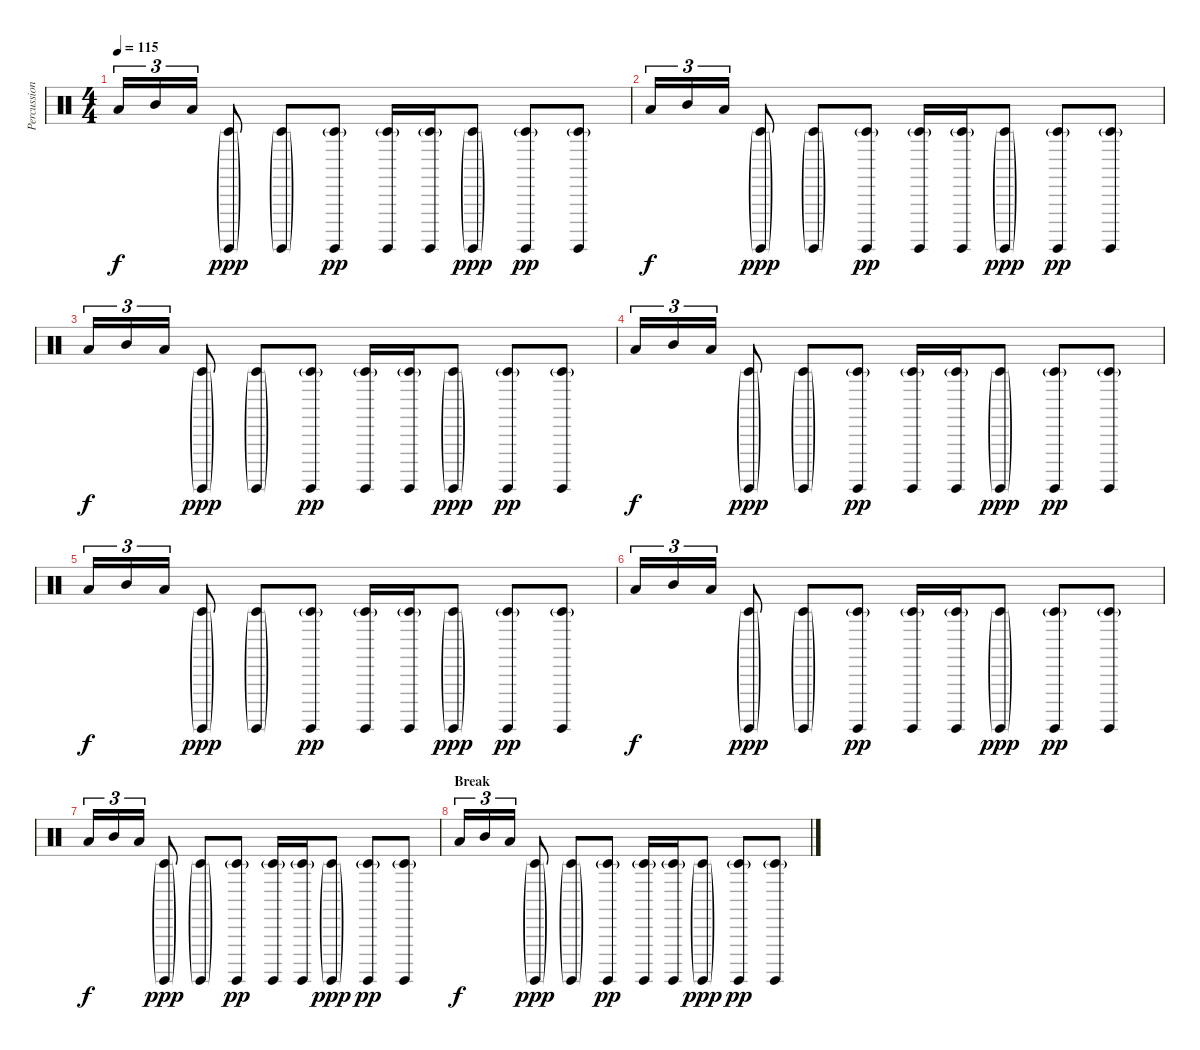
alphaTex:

\track ("Percussion - Low Tom" "Percussion") {instrument percussion}
\staff {score}
\articulation defaults
\ts (4 4)
\tempo 115
\clef neutral
\ks c "Low Tom (hit)".16{tu (3 2) dy f} "Mid Tom (hit)".16{tu (3 2)} "Low Tom (hit)".16{tu (3 2)}
("Timbale low (hit)"{g} "Surdo (hit)"{g}).8{dy ppp} ("Timbale low (hit)"{g} "Surdo (hit)"{g}).8 ("Timbale low (hit)"{g} "Surdo (hit)").8{dy pp} ("Timbale low (hit)"{g} "Surdo (hit)").16 ("Timbale low (hit)"{g} "Surdo (hit)").16 ("Timbale low (hit)"{g} "Surdo (hit)"{g}).8{dy ppp} ("Timbale low (hit)"{g} "Surdo (hit)").8{dy pp} ("Timbale low (hit)"{g} "Surdo (hit)").8 |
"Low Tom (hit)".16{tu (3 2) dy f} "Mid Tom (hit)".16{tu (3 2)} "Low Tom (hit)".16{tu (3 2)} ("Timbale low (hit)"{g} "Surdo (hit)"{g}).8{dy ppp} ("Timbale low (hit)"{g} "Surdo (hit)"{g}).8 ("Timbale low (hit)"{g} "Surdo (hit)").8{dy pp} ("Timbale low (hit)"{g} "Surdo (hit)").16 ("Timbale low (hit)"{g} "Surdo (hit)").16 ("Timbale low (hit)"{g} "Surdo (hit)"{g}).8{dy ppp} ("Timbale low (hit)"{g} "Surdo (hit)").8{dy pp} ("Timbale low (hit)"{g} "Surdo (hit)").8 |
"Low Tom (hit)".16{tu (3 2) dy f} "Mid Tom (hit)".16{tu (3 2)} "Low Tom (hit)".16{tu (3 2)} ("Timbale low (hit)"{g} "Surdo (hit)"{g}).8{dy ppp} ("Timbale low (hit)"{g} "Surdo (hit)"{g}).8 ("Timbale low (hit)"{g} "Surdo (hit)").8{dy pp} ("Timbale low (hit)"{g} "Surdo (hit)").16 ("Timbale low (hit)"{g} "Surdo (hit)").16 ("Timbale low (hit)"{g} "Surdo (hit)"{g}).8{dy ppp} ("Timbale low (hit)"{g} "Surdo (hit)").8{dy pp} ("Timbale low (hit)"{g} "Surdo (hit)").8 |
"Low Tom (hit)".16{tu (3 2) dy f} "Mid Tom (hit)".16{tu (3 2)} "Low Tom (hit)".16{tu (3 2)} ("Timbale low (hit)"{g} "Surdo (hit)"{g}).8{dy ppp} ("Timbale low (hit)"{g} "Surdo (hit)"{g}).8 ("Timbale low (hit)"{g} "Surdo (hit)").8{dy pp} ("Timbale low (hit)"{g} "Surdo (hit)").16 ("Timbale low (hit)"{g} "Surdo (hit)").16 ("Timbale low (hit)"{g} "Surdo (hit)"{g}).8{dy ppp} ("Timbale low (hit)"{g} "Surdo (hit)").8{dy pp} ("Timbale low (hit)"{g} "Surdo (hit)").8 |
"Low Tom (hit)".16{tu (3 2) dy f} "Mid Tom (hit)".16{tu (3 2)} "Low Tom (hit)".16{tu (3 2)} ("Timbale low (hit)"{g} "Surdo (hit)"{g}).8{dy ppp} ("Timbale low (hit)"{g} "Surdo (hit)"{g}).8 ("Timbale low (hit)"{g} "Surdo (hit)").8{dy pp} ("Timbale low (hit)"{g} "Surdo (hit)").16 ("Timbale low (hit)"{g} "Surdo (hit)").16 ("Timbale low (hit)"{g} "Surdo (hit)"{g}).8{dy ppp} ("Timbale low (hit)"{g} "Surdo (hit)").8{dy pp} ("Timbale low (hit)"{g} "Surdo (hit)").8 |
"Low Tom (hit)".16{tu (3 2) dy f} "Mid Tom (hit)".16{tu (3 2)} "Low Tom (hit)".16{tu (3 2)} ("Timbale low (hit)"{g} "Surdo (hit)"{g}).8{dy ppp} ("Timbale low (hit)"{g} "Surdo (hit)"{g}).8 ("Timbale low (hit)"{g} "Surdo (hit)").8{dy pp} ("Timbale low (hit)"{g} "Surdo (hit)").16 ("Timbale low (hit)"{g} "Surdo (hit)").16 ("Timbale low (hit)"{g} "Surdo (hit)"{g}).8{dy ppp} ("Timbale low (hit)"{g} "Surdo (hit)").8{dy pp} ("Timbale low (hit)"{g} "Surdo (hit)").8 |
"Low Tom (hit)".16{tu (3 2) dy f} "Mid Tom (hit)".16{tu (3 2)} "Low Tom (hit)".16{tu (3 2)} ("Timbale low (hit)"{g} "Surdo (hit)"{g}).8{dy ppp} ("Timbale low (hit)"{g} "Surdo (hit)"{g}).8 ("Timbale low (hit)"{g} "Surdo (hit)").8{dy pp} ("Timbale low (hit)"{g} "Surdo (hit)").16 ("Timbale low (hit)"{g} "Surdo (hit)").16 ("Timbale low (hit)"{g} "Surdo (hit)"{g}).8{dy ppp} ("Timbale low (hit)"{g} "Surdo (hit)").8{dy pp} ("Timbale low (hit)"{g} "Surdo (hit)").8 |
\section ("" "Break")
"Low Tom (hit)".16{tu (3 2) dy f} "Mid Tom (hit)".16{tu (3 2)} "Low Tom (hit)".16{tu (3 2)} ("Timbale low (hit)"{g} "Surdo (hit)"{g}).8{dy ppp} ("Timbale low (hit)"{g} "Surdo (hit)"{g}).8 ("Timbale low (hit)"{g} "Surdo (hit)").8{dy pp} ("Timbale low (hit)"{g} "Surdo (hit)").16 ("Timbale low (hit)"{g} "Surdo (hit)").16 ("Timbale low (hit)"{g} "Surdo (hit)"{g}).8{dy ppp} ("Timbale low (hit)"{g} "Surdo (hit)").8{dy pp} ("Timbale low (hit)"{g} "Surdo (hit)").8
